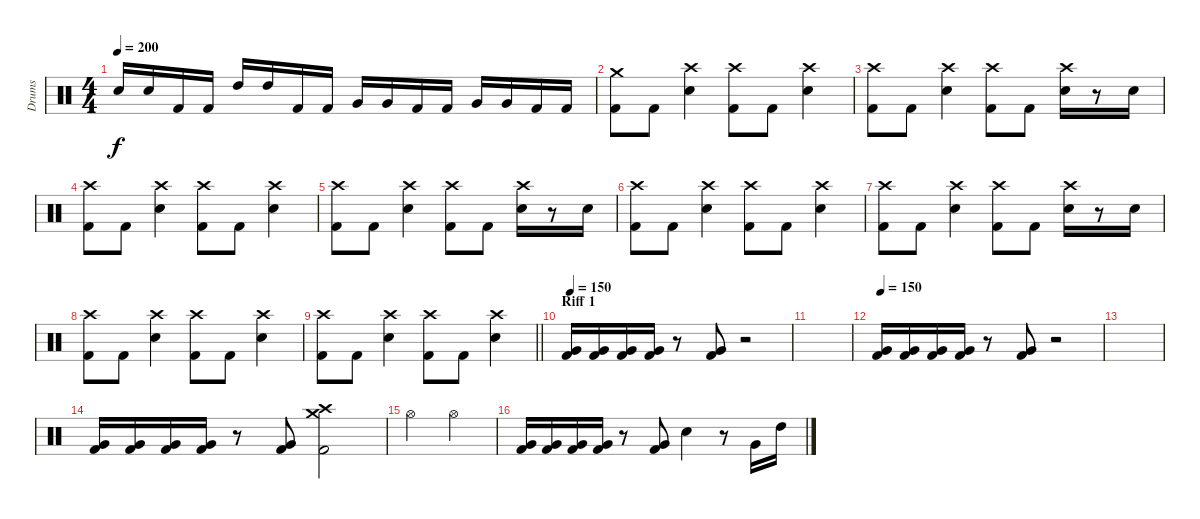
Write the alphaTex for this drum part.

\track ("Drums" "Drums") {instrument percussion}
\staff {score}
\articulation defaults
\ts (4 4)
\tempo 200
\clef neutral
\ks c "Snare (hit) 2".16{dy f} "Snare (hit) 2".16 "Kick (hit) 2".16 "Kick (hit) 2".16 "High Tom (hit)".16 "High Tom (hit)".16 "Kick (hit) 2".16 "Kick (hit) 2".16 "Very Low Tom (hit)".16 "Very Low Tom (hit)".16 "Kick (hit) 2".16 "Kick (hit) 2".16 "Very Low Tom (hit)".16 "Very Low Tom (hit)".16 "Kick (hit) 2".16 "Kick (hit) 2".16
|
("Crash medium (hit)" "Kick (hit) 2").8 "Kick (hit) 2".8 ("Crash high (hit)" "Snare (hit) 2").4 ("Crash high (hit)" "Kick (hit) 2").8 "Kick (hit) 2".8 ("Crash high (hit)" "Snare (hit) 2").4 |
("Crash high (hit)" "Kick (hit) 2").8 "Kick (hit) 2".8 ("Crash high (hit)" "Snare (hit) 2").4 ("Crash high (hit)" "Kick (hit) 2").8 "Kick (hit) 2".8 ("Crash high (hit)" "Snare (hit) 2").16 r.8 "Snare (hit) 2".16 |
("Crash high (hit)" "Kick (hit) 2").8 "Kick (hit) 2".8 ("Crash high (hit)" "Snare (hit) 2").4 ("Crash high (hit)" "Kick (hit) 2").8 "Kick (hit) 2".8 ("Crash high (hit)" "Snare (hit) 2").4 |
("Crash high (hit)" "Kick (hit) 2").8 "Kick (hit) 2".8 ("Crash high (hit)" "Snare (hit) 2").4 ("Crash high (hit)" "Kick (hit) 2").8 "Kick (hit) 2".8 ("Crash high (hit)" "Snare (hit) 2").16 r.8 "Snare (hit) 2".16 |
("Crash high (hit)" "Kick (hit) 2").8 "Kick (hit) 2".8 ("Crash high (hit)" "Snare (hit) 2").4 ("Crash high (hit)" "Kick (hit) 2").8 "Kick (hit) 2".8 ("Crash high (hit)" "Snare (hit) 2").4 |
("Crash high (hit)" "Kick (hit) 2").8 "Kick (hit) 2".8 ("Crash high (hit)" "Snare (hit) 2").4 ("Crash high (hit)" "Kick (hit) 2").8 "Kick (hit) 2".8 ("Crash high (hit)" "Snare (hit) 2").16 r.8 "Snare (hit) 2".16 |
("Crash high (hit)" "Kick (hit) 2").8 "Kick (hit) 2".8 ("Crash high (hit)" "Snare (hit) 2").4 ("Crash high (hit)" "Kick (hit) 2").8 "Kick (hit) 2".8 ("Crash high (hit)" "Snare (hit) 2").4 |
\barLineRight lightlight
("Crash high (hit)" "Kick (hit) 2").8 "Kick (hit) 2".8 ("Crash high (hit)" "Snare (hit) 2").4 ("Crash high (hit)" "Kick (hit) 2").8 "Kick (hit) 2".8 ("Crash high (hit)" "Snare (hit) 2").4 |
\section ("" "Riff 1")
\tempo 150
("Very Low Tom (hit)" "Kick (hit) 2").16 ("Very Low Tom (hit)" "Kick (hit) 2").16 ("Very Low Tom (hit)" "Kick (hit) 2").16 ("Very Low Tom (hit)" "Kick (hit) 2").16 r.8 ("Very Low Tom (hit)" "Kick (hit) 2").8 r.2 |
|
\tempo 150
("Very Low Tom (hit)" "Kick (hit) 2").16 ("Very Low Tom (hit)" "Kick (hit) 2").16 ("Very Low Tom (hit)" "Kick (hit) 2").16 ("Very Low Tom (hit)" "Kick (hit) 2").16 r.8 ("Very Low Tom (hit)" "Kick (hit) 2").8 r.2 |
|
("Very Low Tom (hit)" "Kick (hit) 2").16 ("Very Low Tom (hit)" "Kick (hit) 2").16 ("Very Low Tom (hit)" "Kick (hit) 2").16 ("Very Low Tom (hit)" "Kick (hit) 2").16 r.8 ("Very Low Tom (hit)" "Kick (hit) 2").8 ("Crash medium (hit)" "Crash high (hit)" "Kick (hit) 2").2 |
"Hi-Hat (open)".2 "Hi-Hat (open)".2 |
("Very Low Tom (hit)" "Kick (hit) 2").16 ("Very Low Tom (hit)" "Kick (hit) 2").16 ("Very Low Tom (hit)" "Kick (hit) 2").16 ("Very Low Tom (hit)" "Kick (hit) 2").16 r.8 ("Very Low Tom (hit)" "Kick (hit) 2").8 "Snare (hit) 2".4 r.8 "Very Low Tom (hit)".16 "High Tom (hit)".16
